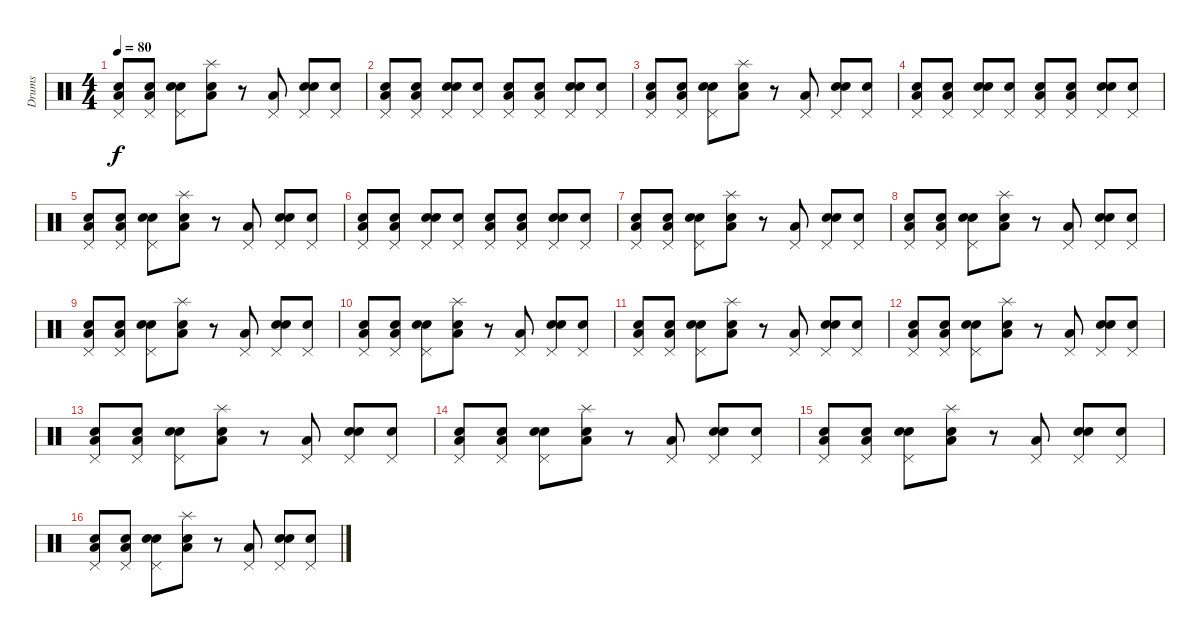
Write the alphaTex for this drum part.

\track ("Drums" "Drums") {instrument percussion}
\staff {score}
\articulation defaults
\ts (4 4)
\tempo 80
\clef neutral
\ks c
("Snare (hit)" "Low Floor Tom (hit)" "Pedal Hi-Hat (hit)").8{dy f} ("Snare (hit)" "Low Floor Tom (hit)" "Pedal Hi-Hat (hit)").8 ("Snare (hit)" "Electric Snare (hit)" "Pedal Hi-Hat (hit)").8 ("Snare (hit)" "Low Floor Tom (hit)" "Splash (hit)").8 r.8 ("Low Floor Tom (hit)" "Pedal Hi-Hat (hit)").8 ("Snare (hit)" "Electric Snare (hit)" "Pedal Hi-Hat (hit)").8 ("Snare (hit)" "Pedal Hi-Hat (hit)").8 |
("Snare (hit)" "Low Floor Tom (hit)" "Pedal Hi-Hat (hit)").8 ("Snare (hit)" "Low Floor Tom (hit)" "Pedal Hi-Hat (hit)").8 ("Snare (hit)" "Electric Snare (hit)" "Pedal Hi-Hat (hit)").8 ("Snare (hit)" "Pedal Hi-Hat (hit)").8 ("Snare (hit)" "Low Floor Tom (hit)" "Pedal Hi-Hat (hit)").8 ("Snare (hit)" "Low Floor Tom (hit)" "Pedal Hi-Hat (hit)").8 ("Snare (hit)" "Electric Snare (hit)" "Pedal Hi-Hat (hit)").8 ("Snare (hit)" "Pedal Hi-Hat (hit)").8 |
("Snare (hit)" "Low Floor Tom (hit)" "Pedal Hi-Hat (hit)").8 ("Snare (hit)" "Low Floor Tom (hit)" "Pedal Hi-Hat (hit)").8 ("Snare (hit)" "Electric Snare (hit)" "Pedal Hi-Hat (hit)").8 ("Snare (hit)" "Low Floor Tom (hit)" "Splash (hit)").8 r.8 ("Low Floor Tom (hit)" "Pedal Hi-Hat (hit)").8 ("Snare (hit)" "Electric Snare (hit)" "Pedal Hi-Hat (hit)").8 ("Snare (hit)" "Pedal Hi-Hat (hit)").8 |
("Snare (hit)" "Low Floor Tom (hit)" "Pedal Hi-Hat (hit)").8 ("Snare (hit)" "Low Floor Tom (hit)" "Pedal Hi-Hat (hit)").8 ("Snare (hit)" "Electric Snare (hit)" "Pedal Hi-Hat (hit)").8 ("Snare (hit)" "Pedal Hi-Hat (hit)").8 ("Snare (hit)" "Low Floor Tom (hit)" "Pedal Hi-Hat (hit)").8 ("Snare (hit)" "Low Floor Tom (hit)" "Pedal Hi-Hat (hit)").8 ("Snare (hit)" "Electric Snare (hit)" "Pedal Hi-Hat (hit)").8 ("Snare (hit)" "Pedal Hi-Hat (hit)").8 |
("Snare (hit)" "Low Floor Tom (hit)" "Pedal Hi-Hat (hit)").8 ("Snare (hit)" "Low Floor Tom (hit)" "Pedal Hi-Hat (hit)").8 ("Snare (hit)" "Electric Snare (hit)" "Pedal Hi-Hat (hit)").8 ("Snare (hit)" "Low Floor Tom (hit)" "Splash (hit)").8 r.8 ("Low Floor Tom (hit)" "Pedal Hi-Hat (hit)").8 ("Snare (hit)" "Electric Snare (hit)" "Pedal Hi-Hat (hit)").8 ("Snare (hit)" "Pedal Hi-Hat (hit)").8 |
("Snare (hit)" "Low Floor Tom (hit)" "Pedal Hi-Hat (hit)").8 ("Snare (hit)" "Low Floor Tom (hit)" "Pedal Hi-Hat (hit)").8 ("Snare (hit)" "Electric Snare (hit)" "Pedal Hi-Hat (hit)").8 ("Snare (hit)" "Pedal Hi-Hat (hit)").8 ("Snare (hit)" "Low Floor Tom (hit)" "Pedal Hi-Hat (hit)").8 ("Snare (hit)" "Low Floor Tom (hit)" "Pedal Hi-Hat (hit)").8 ("Snare (hit)" "Electric Snare (hit)" "Pedal Hi-Hat (hit)").8 ("Snare (hit)" "Pedal Hi-Hat (hit)").8 |
("Snare (hit)" "Low Floor Tom (hit)" "Pedal Hi-Hat (hit)").8 ("Snare (hit)" "Low Floor Tom (hit)" "Pedal Hi-Hat (hit)").8 ("Snare (hit)" "Electric Snare (hit)" "Pedal Hi-Hat (hit)").8 ("Snare (hit)" "Low Floor Tom (hit)" "Splash (hit)").8 r.8 ("Low Floor Tom (hit)" "Pedal Hi-Hat (hit)").8 ("Snare (hit)" "Electric Snare (hit)" "Pedal Hi-Hat (hit)").8 ("Snare (hit)" "Pedal Hi-Hat (hit)").8 |
("Snare (hit)" "Low Floor Tom (hit)" "Pedal Hi-Hat (hit)").8 ("Snare (hit)" "Low Floor Tom (hit)" "Pedal Hi-Hat (hit)").8 ("Snare (hit)" "Electric Snare (hit)" "Pedal Hi-Hat (hit)").8 ("Snare (hit)" "Low Floor Tom (hit)" "Splash (hit)").8 r.8 ("Low Floor Tom (hit)" "Pedal Hi-Hat (hit)").8 ("Snare (hit)" "Electric Snare (hit)" "Pedal Hi-Hat (hit)").8 ("Snare (hit)" "Pedal Hi-Hat (hit)").8 |
("Snare (hit)" "Low Floor Tom (hit)" "Pedal Hi-Hat (hit)").8 ("Snare (hit)" "Low Floor Tom (hit)" "Pedal Hi-Hat (hit)").8 ("Snare (hit)" "Electric Snare (hit)" "Pedal Hi-Hat (hit)").8 ("Snare (hit)" "Low Floor Tom (hit)" "Splash (hit)").8 r.8 ("Low Floor Tom (hit)" "Pedal Hi-Hat (hit)").8 ("Snare (hit)" "Electric Snare (hit)" "Pedal Hi-Hat (hit)").8 ("Snare (hit)" "Pedal Hi-Hat (hit)").8 |
("Snare (hit)" "Low Floor Tom (hit)" "Pedal Hi-Hat (hit)").8 ("Snare (hit)" "Low Floor Tom (hit)" "Pedal Hi-Hat (hit)").8 ("Snare (hit)" "Electric Snare (hit)" "Pedal Hi-Hat (hit)").8 ("Snare (hit)" "Low Floor Tom (hit)" "Splash (hit)").8 r.8 ("Low Floor Tom (hit)" "Pedal Hi-Hat (hit)").8 ("Snare (hit)" "Electric Snare (hit)" "Pedal Hi-Hat (hit)").8 ("Snare (hit)" "Pedal Hi-Hat (hit)").8 |
("Snare (hit)" "Low Floor Tom (hit)" "Pedal Hi-Hat (hit)").8 ("Snare (hit)" "Low Floor Tom (hit)" "Pedal Hi-Hat (hit)").8 ("Snare (hit)" "Electric Snare (hit)" "Pedal Hi-Hat (hit)").8 ("Snare (hit)" "Low Floor Tom (hit)" "Splash (hit)").8 r.8 ("Low Floor Tom (hit)" "Pedal Hi-Hat (hit)").8 ("Snare (hit)" "Electric Snare (hit)" "Pedal Hi-Hat (hit)").8 ("Snare (hit)" "Pedal Hi-Hat (hit)").8 |
("Snare (hit)" "Low Floor Tom (hit)" "Pedal Hi-Hat (hit)").8 ("Snare (hit)" "Low Floor Tom (hit)" "Pedal Hi-Hat (hit)").8 ("Snare (hit)" "Electric Snare (hit)" "Pedal Hi-Hat (hit)").8 ("Snare (hit)" "Low Floor Tom (hit)" "Splash (hit)").8 r.8 ("Low Floor Tom (hit)" "Pedal Hi-Hat (hit)").8 ("Snare (hit)" "Electric Snare (hit)" "Pedal Hi-Hat (hit)").8 ("Snare (hit)" "Pedal Hi-Hat (hit)").8 |
("Snare (hit)" "Low Floor Tom (hit)" "Pedal Hi-Hat (hit)").8 ("Snare (hit)" "Low Floor Tom (hit)" "Pedal Hi-Hat (hit)").8 ("Snare (hit)" "Electric Snare (hit)" "Pedal Hi-Hat (hit)").8 ("Snare (hit)" "Low Floor Tom (hit)" "Splash (hit)").8 r.8 ("Low Floor Tom (hit)" "Pedal Hi-Hat (hit)").8 ("Snare (hit)" "Electric Snare (hit)" "Pedal Hi-Hat (hit)").8 ("Snare (hit)" "Pedal Hi-Hat (hit)").8 |
("Snare (hit)" "Low Floor Tom (hit)" "Pedal Hi-Hat (hit)").8 ("Snare (hit)" "Low Floor Tom (hit)" "Pedal Hi-Hat (hit)").8 ("Snare (hit)" "Electric Snare (hit)" "Pedal Hi-Hat (hit)").8 ("Snare (hit)" "Low Floor Tom (hit)" "Splash (hit)").8 r.8 ("Low Floor Tom (hit)" "Pedal Hi-Hat (hit)").8 ("Snare (hit)" "Electric Snare (hit)" "Pedal Hi-Hat (hit)").8 ("Snare (hit)" "Pedal Hi-Hat (hit)").8 |
("Snare (hit)" "Low Floor Tom (hit)" "Pedal Hi-Hat (hit)").8 ("Snare (hit)" "Low Floor Tom (hit)" "Pedal Hi-Hat (hit)").8 ("Snare (hit)" "Electric Snare (hit)" "Pedal Hi-Hat (hit)").8 ("Snare (hit)" "Low Floor Tom (hit)" "Splash (hit)").8 r.8 ("Low Floor Tom (hit)" "Pedal Hi-Hat (hit)").8 ("Snare (hit)" "Electric Snare (hit)" "Pedal Hi-Hat (hit)").8 ("Snare (hit)" "Pedal Hi-Hat (hit)").8 |
("Snare (hit)" "Low Floor Tom (hit)" "Pedal Hi-Hat (hit)").8 ("Snare (hit)" "Low Floor Tom (hit)" "Pedal Hi-Hat (hit)").8 ("Snare (hit)" "Electric Snare (hit)" "Pedal Hi-Hat (hit)").8 ("Snare (hit)" "Low Floor Tom (hit)" "Splash (hit)").8 r.8 ("Low Floor Tom (hit)" "Pedal Hi-Hat (hit)").8 ("Snare (hit)" "Electric Snare (hit)" "Pedal Hi-Hat (hit)").8 ("Snare (hit)" "Pedal Hi-Hat (hit)").8
